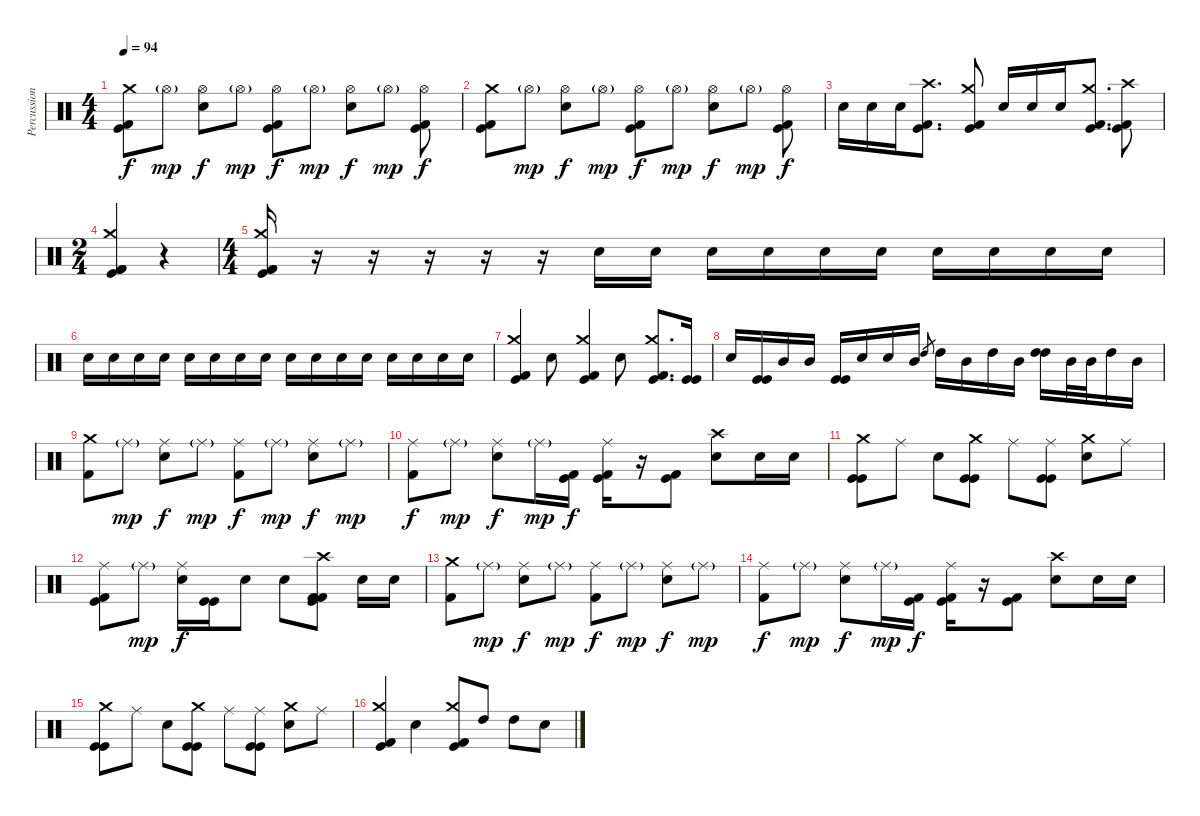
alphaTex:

\track ("Percussion" "Percussion") {solo instrument percussion}
\staff {score}
\articulation defaults
\ts (4 4)
\tempo 94
\clef neutral
\ks c
("Kick (hit) 2" "Crash medium (hit)" "Kick (hit)").8{dy f} "Hi-Hat (open)"{g}.8{dy mp} ("Hi-Hat (open)" "Electric Snare (hit)").8{dy f} "Hi-Hat (open)"{g}.8{dy mp} ("Kick (hit) 2" "Hi-Hat (open)" "Kick (hit)").8{dy f} "Hi-Hat (open)"{g}.8{dy mp} ("Hi-Hat (open)" "Electric Snare (hit)").8{dy f} "Hi-Hat (open)"{g}.8{dy mp} ("Kick (hit) 2" "Hi-Hat (open)" "Kick (hit)").8{dy f} |
("Kick (hit) 2" "Crash medium (hit)" "Kick (hit)").8 "Hi-Hat (open)"{g}.8{dy mp} ("Hi-Hat (open)" "Electric Snare (hit)").8{dy f} "Hi-Hat (open)"{g}.8{dy mp} ("Kick (hit) 2" "Hi-Hat (open)" "Kick (hit)").8{dy f} "Hi-Hat (open)"{g}.8{dy mp} ("Hi-Hat (open)" "Electric Snare (hit)").8{dy f} "Hi-Hat (open)"{g}.8{dy mp} ("Kick (hit) 2" "Hi-Hat (open)" "Kick (hit)").8{dy f} |
"Electric Snare (hit)".16 "Electric Snare (hit)".16 "Electric Snare (hit)".16 ("Crash high (hit)" "Kick (hit) 2" "Kick (hit)").8{d} ("Crash medium (hit)" "Kick (hit) 2" "Kick (hit)").8 "Electric Snare (hit)".16 "Electric Snare (hit)".16 "Electric Snare (hit)".16 ("Crash medium (hit)" "Kick (hit) 2" "Kick (hit)").8{d} ("Crash high (hit)" "Kick (hit) 2" "Kick (hit)").8 |
\ts (2 4)
("Kick (hit) 2" "Kick (hit) 2" "Crash medium (hit)" "Kick (hit)").4 r.4 |
\ts (4 4)
("Kick (hit) 2" "Kick (hit) 2" "Crash medium (hit)" "Kick (hit)").16 r.16 r.16 r.16 r.16 r.16 "Electric Snare (hit)".16{volume 4} "Electric Snare (hit)".16{volume 4} "Electric Snare (hit)".16{volume 5} "Electric Snare (hit)".16{volume 5} "Electric Snare (hit)".16{volume 6} "Electric Snare (hit)".16{volume 6} "Electric Snare (hit)".16{volume 7} "Electric Snare (hit)".16{volume 7} "Electric Snare (hit)".16{volume 8} "Electric Snare (hit)".16{volume 8} |
"Electric Snare (hit)".16{volume 9} "Electric Snare (hit)".16{volume 9} "Electric Snare (hit)".16{volume 10} "Electric Snare (hit)".16{volume 10} "Electric Snare (hit)".16{volume 11} "Electric Snare (hit)".16{volume 11} "Electric Snare (hit)".16{volume 12} "Electric Snare (hit)".16{volume 12} "Electric Snare (hit)".16{volume 13} "Electric Snare (hit)".16{volume 13} "Electric Snare (hit)".16{volume 14} "Electric Snare (hit)".16{volume 14} "Electric Snare (hit)".16{volume 15} "Electric Snare (hit)".16{volume 15} "Electric Snare (hit)".16{volume 16} "Electric Snare (hit)".16 |
("Kick (hit) 2" "Crash medium (hit)" "Kick (hit)").4 "Electric Snare (hit)".8 ("Kick (hit) 2" "Crash medium (hit)" "Kick (hit)").4 "Electric Snare (hit)".8 ("Kick (hit) 2" "Crash medium (hit)" "Kick (hit)").8{d} ("Kick (hit)" "Kick (hit)").16 |
"Electric Snare (hit)".16 ("Kick (hit)" "Kick (hit)").16 "Mid Tom (hit)".16 "Mid Tom (hit)".16 ("Kick (hit)" "Kick (hit)").16 "Electric Snare (hit)".16 "Electric Snare (hit)".16 "Mid Tom (hit)".16 "High Tom (hit)".8{gr} "High Tom (hit)".16 "Mid Tom (hit)".16 "High Tom (hit)".16 "Mid Tom (hit)".16 ("High Tom (hit)" "High Tom (hit)").16 "Mid Tom (hit)".32 "Mid Tom (hit)".32 "High Tom (hit)".16 "Mid Tom (hit)".16 |
("Crash medium (hit)" "Kick (hit) 2").8 "Ride (middle)"{g}.8{dy mp} ("Ride (middle)" "Electric Snare (hit)").8{dy f} "Ride (middle)"{g}.8{dy mp} ("Ride (middle)" "Kick (hit) 2").8{dy f} "Ride (middle)"{g}.8{dy mp} ("Ride (middle)" "Electric Snare (hit)").8{dy f} "Ride (middle)"{g}.8{dy mp} |
("Ride (middle)" "Kick (hit) 2").8{dy f} "Ride (middle)"{g}.8{dy mp} ("Ride (middle)" "Electric Snare (hit)").8{dy f} "Ride (middle)"{g}.16{dy mp} ("Kick (hit)" "Kick (hit) 2").16{dy f} ("Kick (hit)" "Ride (middle)" "Kick (hit) 2").16 r.16 ("Kick (hit)" "Kick (hit) 2").8 ("Crash high (hit)" "Electric Snare (hit)").8 "Electric Snare (hit)".16 "Electric Snare (hit)".16 |
("Kick (hit)" "Crash medium (hit)" "Kick (hit)").8 "Ride (middle)".8 "Electric Snare (hit)".8 ("Kick (hit)" "Crash medium (hit)" "Kick (hit)").8 "Ride (middle)".8 ("Kick (hit)" "Ride (middle)" "Kick (hit)").8 ("Crash medium (hit)" "Electric Snare (hit)").8 "Ride (middle)".8 |
("Kick (hit) 2" "Ride (middle)" "Kick (hit)").8 "Ride (middle)"{g}.8{dy mp} ("Ride (middle)" "Electric Snare (hit)").16{dy f} ("Kick (hit)" "Kick (hit)").16 "Electric Snare (hit)".8 "Electric Snare (hit)".8 ("Kick (hit) 2" "Kick (hit) 2" "Crash high (hit)" "Kick (hit)").8 "Electric Snare (hit)".16 "Electric Snare (hit)".16 |
("Crash medium (hit)" "Kick (hit) 2").8 "Ride (middle)"{g}.8{dy mp} ("Ride (middle)" "Electric Snare (hit)").8{dy f} "Ride (middle)"{g}.8{dy mp} ("Ride (middle)" "Kick (hit) 2").8{dy f} "Ride (middle)"{g}.8{dy mp} ("Ride (middle)" "Electric Snare (hit)").8{dy f} "Ride (middle)"{g}.8{dy mp} |
("Ride (middle)" "Kick (hit) 2").8{dy f} "Ride (middle)"{g}.8{dy mp} ("Ride (middle)" "Electric Snare (hit)").8{dy f} "Ride (middle)"{g}.16{dy mp} ("Kick (hit)" "Kick (hit) 2").16{dy f} ("Kick (hit)" "Ride (middle)" "Kick (hit) 2").16 r.16 ("Kick (hit)" "Kick (hit) 2").8 ("Crash high (hit)" "Electric Snare (hit)").8 "Electric Snare (hit)".16 "Electric Snare (hit)".16 |
("Kick (hit)" "Crash medium (hit)" "Kick (hit)").8 "Ride (middle)".8 "Electric Snare (hit)".8 ("Kick (hit)" "Crash medium (hit)" "Kick (hit)").8 "Ride (middle)".8 ("Kick (hit)" "Ride (middle)" "Kick (hit)").8 ("Crash medium (hit)" "Electric Snare (hit)").8 "Ride (middle)".8 |
("Kick (hit) 2" "Crash medium (hit)" "Kick (hit)").4 "Electric Snare (hit)".4 ("Kick (hit) 2" "Crash medium (hit)" "Kick (hit)").8 "High Tom (hit)".8 "High Tom (hit)".8 "Electric Snare (hit)".8
